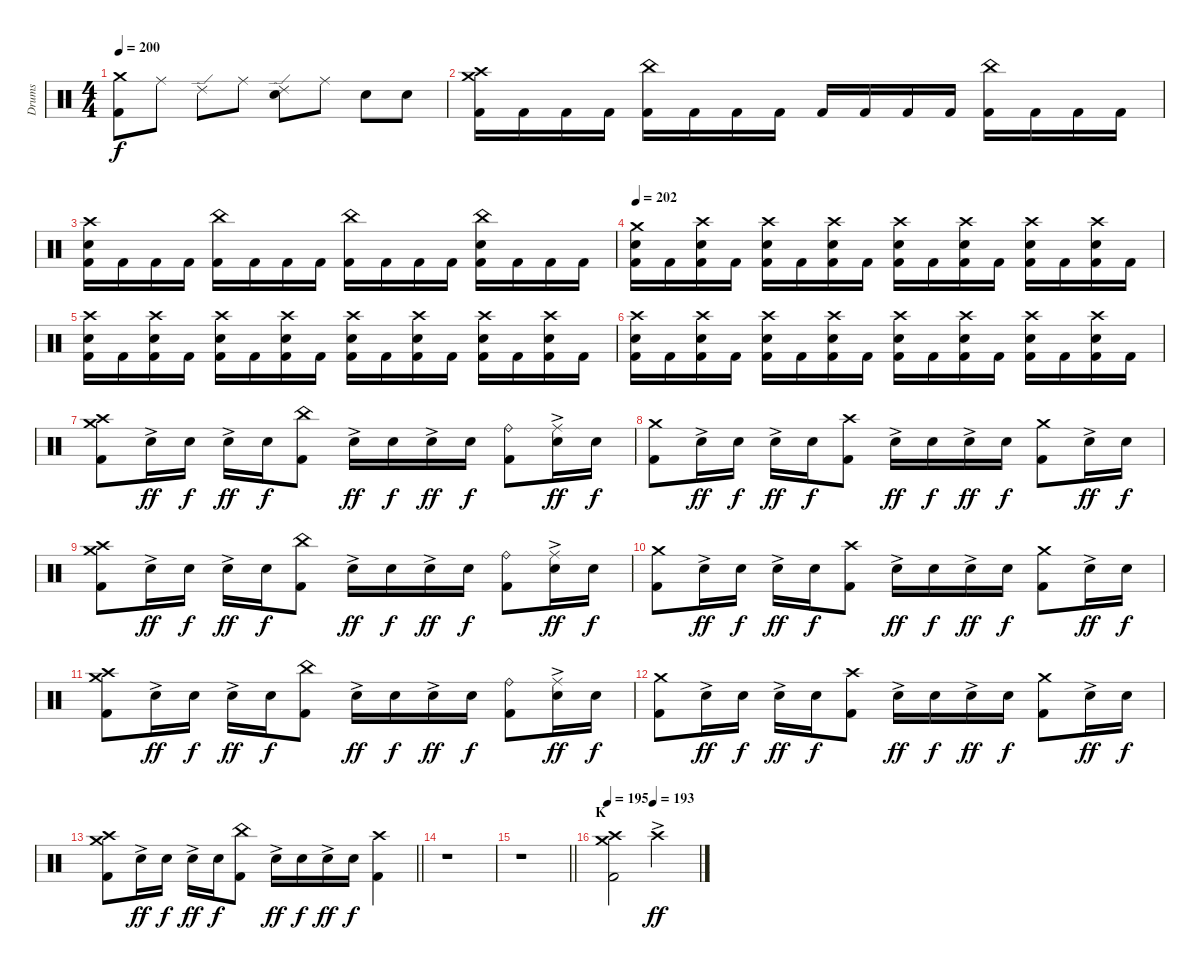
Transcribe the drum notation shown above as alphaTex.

\track ("Drums" "Drums") {instrument percussion}
\staff {score}
\articulation defaults
\ts (4 4)
\tempo 200
\clef neutral
\ks c
("Crash medium (hit)" "Kick (hit) 2").8{dy f} "Ride (middle)".8 "Ride (edge) 2".8 "Ride (middle)".8 ("Ride (edge) 2" "Electric Snare (hit)").8 "Ride (middle)".8 "Electric Snare (hit)".8 "Electric Snare (hit)".8 |
("Crash medium (hit)" "Crash high (hit)" "Kick (hit) 2").16 "Kick (hit) 2".16 "Kick (hit) 2".16 "Kick (hit) 2".16 ("China (hit)" "Kick (hit) 2").16 "Kick (hit) 2".16 "Kick (hit) 2".16 "Kick (hit) 2".16 "Kick (hit) 2".16 "Kick (hit) 2".16 "Kick (hit) 2".16 "Kick (hit) 2".16 ("China (hit)" "Kick (hit) 2").16 "Kick (hit) 2".16 "Kick (hit) 2".16 "Kick (hit) 2".16 |
("Crash high (hit)" "Electric Snare (hit)" "Kick (hit) 2").16 "Kick (hit) 2".16 "Kick (hit) 2".16 "Kick (hit) 2".16 ("China (hit)" "Kick (hit) 2").16 "Kick (hit) 2".16 "Kick (hit) 2".16 "Kick (hit) 2".16 ("China (hit)" "Kick (hit) 2").16 "Kick (hit) 2".16 "Kick (hit) 2".16 "Kick (hit) 2".16 ("China (hit)" "Electric Snare (hit)" "Kick (hit) 2").16 "Kick (hit) 2".16 "Kick (hit) 2".16 "Kick (hit) 2".16 |
\tempo 202
("Crash medium (hit)" "Electric Snare (hit)" "Kick (hit) 2").16 "Kick (hit) 2".16 ("Crash high (hit)" "Electric Snare (hit)" "Kick (hit) 2").16 "Kick (hit) 2".16 ("Crash high (hit)" "Electric Snare (hit)" "Kick (hit) 2").16 "Kick (hit) 2".16 ("Crash high (hit)" "Electric Snare (hit)" "Kick (hit) 2").16 "Kick (hit) 2".16 ("Crash high (hit)" "Electric Snare (hit)" "Kick (hit) 2").16 "Kick (hit) 2".16 ("Crash high (hit)" "Electric Snare (hit)" "Kick (hit) 2").16 "Kick (hit) 2".16 ("Crash high (hit)" "Electric Snare (hit)" "Kick (hit) 2").16 "Kick (hit) 2".16 ("Crash high (hit)" "Electric Snare (hit)" "Kick (hit) 2").16 "Kick (hit) 2".16 |
("Crash high (hit)" "Electric Snare (hit)" "Kick (hit) 2").16 "Kick (hit) 2".16 ("Crash high (hit)" "Electric Snare (hit)" "Kick (hit) 2").16 "Kick (hit) 2".16 ("Crash high (hit)" "Electric Snare (hit)" "Kick (hit) 2").16 "Kick (hit) 2".16 ("Crash high (hit)" "Electric Snare (hit)" "Kick (hit) 2").16 "Kick (hit) 2".16 ("Crash high (hit)" "Electric Snare (hit)" "Kick (hit) 2").16 "Kick (hit) 2".16 ("Crash high (hit)" "Electric Snare (hit)" "Kick (hit) 2").16 "Kick (hit) 2".16 ("Crash high (hit)" "Electric Snare (hit)" "Kick (hit) 2").16 "Kick (hit) 2".16 ("Crash high (hit)" "Electric Snare (hit)" "Kick (hit) 2").16 "Kick (hit) 2".16 |
("Crash high (hit)" "Electric Snare (hit)" "Kick (hit) 2").16 "Kick (hit) 2".16 ("Crash high (hit)" "Electric Snare (hit)" "Kick (hit) 2").16 "Kick (hit) 2".16 ("Crash high (hit)" "Electric Snare (hit)" "Kick (hit) 2").16 "Kick (hit) 2".16 ("Crash high (hit)" "Electric Snare (hit)" "Kick (hit) 2").16 "Kick (hit) 2".16 ("Crash high (hit)" "Electric Snare (hit)" "Kick (hit) 2").16 "Kick (hit) 2".16 ("Crash high (hit)" "Electric Snare (hit)" "Kick (hit) 2").16 "Kick (hit) 2".16 ("Crash high (hit)" "Electric Snare (hit)" "Kick (hit) 2").16 "Kick (hit) 2".16 ("Crash high (hit)" "Electric Snare (hit)" "Kick (hit) 2").16 "Kick (hit) 2".16 |
("Crash medium (hit)" "Crash high (hit)" "Kick (hit) 2").8 "Electric Snare (hit)"{ac}.16{dy ff} "Electric Snare (hit)".16{dy f} "Electric Snare (hit)"{ac}.16{dy ff} "Electric Snare (hit)".16{dy f} ("China (hit)" "Kick (hit) 2").8 "Electric Snare (hit)"{ac}.16{dy ff} "Electric Snare (hit)".16{dy f} "Electric Snare (hit)"{ac}.16{dy ff} "Electric Snare (hit)".16{dy f} ("Ride (bell)" "Kick (hit) 2").8 ("Ride (middle)" "Electric Snare (hit)"{ac}).16{dy ff} "Electric Snare (hit)".16{dy f} |
("Crash medium (hit)" "Kick (hit) 2").8 "Electric Snare (hit)"{ac}.16{dy ff} "Electric Snare (hit)".16{dy f} "Electric Snare (hit)"{ac}.16{dy ff} "Electric Snare (hit)".16{dy f} ("Crash high (hit)" "Kick (hit) 2").8 "Electric Snare (hit)"{ac}.16{dy ff} "Electric Snare (hit)".16{dy f} "Electric Snare (hit)"{ac}.16{dy ff} "Electric Snare (hit)".16{dy f} ("Crash medium (hit)" "Kick (hit) 2").8 "Electric Snare (hit)"{ac}.16{dy ff} "Electric Snare (hit)".16{dy f} |
("Crash medium (hit)" "Crash high (hit)" "Kick (hit) 2").8 "Electric Snare (hit)"{ac}.16{dy ff} "Electric Snare (hit)".16{dy f} "Electric Snare (hit)"{ac}.16{dy ff} "Electric Snare (hit)".16{dy f} ("China (hit)" "Kick (hit) 2").8 "Electric Snare (hit)"{ac}.16{dy ff} "Electric Snare (hit)".16{dy f} "Electric Snare (hit)"{ac}.16{dy ff} "Electric Snare (hit)".16{dy f} ("Ride (bell)" "Kick (hit) 2").8 ("Ride (middle)" "Electric Snare (hit)"{ac}).16{dy ff} "Electric Snare (hit)".16{dy f} |
("Crash medium (hit)" "Kick (hit) 2").8 "Electric Snare (hit)"{ac}.16{dy ff} "Electric Snare (hit)".16{dy f} "Electric Snare (hit)"{ac}.16{dy ff} "Electric Snare (hit)".16{dy f} ("Crash high (hit)" "Kick (hit) 2").8 "Electric Snare (hit)"{ac}.16{dy ff} "Electric Snare (hit)".16{dy f} "Electric Snare (hit)"{ac}.16{dy ff} "Electric Snare (hit)".16{dy f} ("Crash medium (hit)" "Kick (hit) 2").8 "Electric Snare (hit)"{ac}.16{dy ff} "Electric Snare (hit)".16{dy f} |
("Crash medium (hit)" "Crash high (hit)" "Kick (hit) 2").8 "Electric Snare (hit)"{ac}.16{dy ff} "Electric Snare (hit)".16{dy f} "Electric Snare (hit)"{ac}.16{dy ff} "Electric Snare (hit)".16{dy f} ("China (hit)" "Kick (hit) 2").8 "Electric Snare (hit)"{ac}.16{dy ff} "Electric Snare (hit)".16{dy f} "Electric Snare (hit)"{ac}.16{dy ff} "Electric Snare (hit)".16{dy f} ("Ride (bell)" "Kick (hit) 2").8 ("Ride (middle)" "Electric Snare (hit)"{ac}).16{dy ff} "Electric Snare (hit)".16{dy f} |
("Crash medium (hit)" "Kick (hit) 2").8 "Electric Snare (hit)"{ac}.16{dy ff} "Electric Snare (hit)".16{dy f} "Electric Snare (hit)"{ac}.16{dy ff} "Electric Snare (hit)".16{dy f} ("Crash high (hit)" "Kick (hit) 2").8 "Electric Snare (hit)"{ac}.16{dy ff} "Electric Snare (hit)".16{dy f} "Electric Snare (hit)"{ac}.16{dy ff} "Electric Snare (hit)".16{dy f} ("Crash medium (hit)" "Kick (hit) 2").8 "Electric Snare (hit)"{ac}.16{dy ff} "Electric Snare (hit)".16{dy f} |
\barLineRight lightlight
("Crash medium (hit)" "Crash high (hit)" "Kick (hit) 2").8 "Electric Snare (hit)"{ac}.16{dy ff} "Electric Snare (hit)".16{dy f} "Electric Snare (hit)"{ac}.16{dy ff} "Electric Snare (hit)".16{dy f} ("China (hit)" "Kick (hit) 2").8 "Electric Snare (hit)"{ac}.16{dy ff} "Electric Snare (hit)".16{dy f} "Electric Snare (hit)"{ac}.16{dy ff} "Electric Snare (hit)".16{dy f} ("Crash high (hit)" "Kick (hit) 2").4 |
\section ("" "")
r.1{volume 0} |
\barLineRight lightlight
r.1 |
\section ("" "K")
\tempo 195
\tempo (193 0.5)
("Crash medium (hit)" "Crash high (hit)" "Kick (hit) 2").2{volume 14} "Crash high (hit)"{ac}.2{dy ff}
